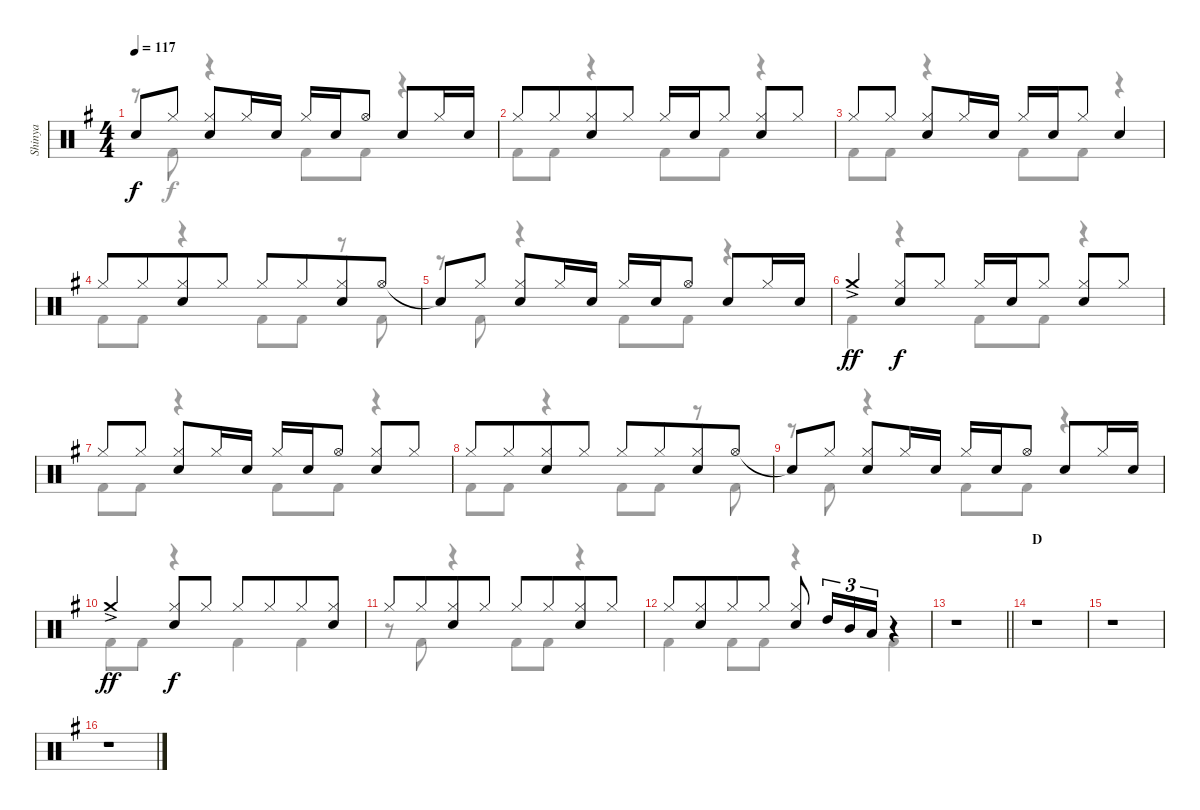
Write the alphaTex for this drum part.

\track ("Shinya" "Shinya") {instrument percussion}
\staff {score}
\articulation defaults
\voice
\ts (4 4)
\tempo 117
\clef neutral
\ks eminor "Snare (hit)"{t}.8{dy f} "Hi-Hat (closed)".8
("Hi-Hat (closed)" "Snare (hit) 2").8 "Hi-Hat (closed)".16 "Snare (hit) 2".16 "Hi-Hat (closed)".16 "Snare (hit) 2".16 "Hi-Hat (open)".8 "Snare (hit) 2".8 "Hi-Hat (closed)".16 "Snare (hit) 2".16 |
"Hi-Hat (closed)".8 "Hi-Hat (closed)".8{beam merge} ("Hi-Hat (closed)" "Snare (hit) 2").8 "Hi-Hat (closed)".8 "Hi-Hat (closed)".16 "Snare (hit) 2".16 "Hi-Hat (closed)".8 ("Hi-Hat (closed)" "Snare (hit) 2").8 "Hi-Hat (closed)".8 |
"Hi-Hat (closed)".8 "Hi-Hat (closed)".8 ("Hi-Hat (closed)" "Snare (hit) 2").8 "Hi-Hat (closed)".16 "Snare (hit) 2".16 "Hi-Hat (closed)".16 "Snare (hit) 2".16 "Hi-Hat (closed)".8 "Snare (hit) 2".4 |
"Hi-Hat (closed)".8 "Hi-Hat (closed)".8{beam merge} ("Hi-Hat (closed)" "Snare (hit) 2").8 "Hi-Hat (closed)".8 "Hi-Hat (closed)".8 "Hi-Hat (closed)".8{beam merge} ("Hi-Hat (closed)" "Snare (hit) 2").8 "Hi-Hat (open)".8 |
"Snare (hit)"{t}.8 "Hi-Hat (closed)".8 ("Hi-Hat (closed)" "Snare (hit) 2").8 "Hi-Hat (closed)".16 "Snare (hit) 2".16 "Hi-Hat (closed)".16 "Snare (hit) 2".16 "Hi-Hat (open)".8 "Snare (hit) 2".8 "Hi-Hat (closed)".16 "Snare (hit) 2".16 |
"Crash medium (hit)"{ac}.4{dy ff} ("Hi-Hat (closed)" "Snare (hit) 2").8{dy f} "Hi-Hat (closed)".8 "Hi-Hat (closed)".16 "Snare (hit) 2".16 "Hi-Hat (closed)".8 ("Hi-Hat (closed)" "Snare (hit) 2").8 "Hi-Hat (closed)".8 |
"Hi-Hat (closed)".8 "Hi-Hat (closed)".8 ("Hi-Hat (closed)" "Snare (hit) 2").8 "Hi-Hat (closed)".16 "Snare (hit) 2".16 "Hi-Hat (closed)".16 "Snare (hit) 2".16 "Hi-Hat (open)".8 ("Hi-Hat (closed)" "Snare (hit) 2").8 "Hi-Hat (closed)".8 |
"Hi-Hat (closed)".8 "Hi-Hat (closed)".8{beam merge} ("Hi-Hat (closed)" "Snare (hit) 2").8 "Hi-Hat (closed)".8 "Hi-Hat (closed)".8 "Hi-Hat (closed)".8{beam merge} ("Hi-Hat (closed)" "Snare (hit) 2").8 "Hi-Hat (open)".8 |
"Snare (hit)"{t}.8 "Hi-Hat (closed)".8 ("Hi-Hat (closed)" "Snare (hit) 2").8 "Hi-Hat (closed)".16 "Snare (hit) 2".16 "Hi-Hat (closed)".16 "Snare (hit) 2".16 "Hi-Hat (open)".8 "Snare (hit) 2".8 "Hi-Hat (closed)".16 "Snare (hit) 2".16 |
"Crash medium (hit)"{ac}.4{dy ff} ("Hi-Hat (closed)" "Snare (hit) 2").8{dy f} "Hi-Hat (closed)".8 "Hi-Hat (closed)".8 "Hi-Hat (closed)".8{beam merge} "Hi-Hat (closed)".8 ("Hi-Hat (closed)" "Snare (hit) 2").8 |
"Hi-Hat (closed)".8{beam merge} "Hi-Hat (closed)".8{beam merge} ("Hi-Hat (closed)" "Snare (hit) 2").8{beam merge} "Hi-Hat (closed)".8 "Hi-Hat (closed)".8 "Hi-Hat (closed)".8{beam merge} ("Hi-Hat (closed)" "Snare (hit) 2").8 "Hi-Hat (closed)".8 |
"Hi-Hat (closed)".8 ("Hi-Hat (closed)" "Snare (hit) 2").8{beam merge} "Hi-Hat (closed)".8 "Hi-Hat (closed)".8 ("Hi-Hat (closed)" "Snare (hit) 2").8 "High Tom (hit)".16{tu (3 2)} "Mid Tom (hit)".16{tu (3 2)} "Low Tom (hit)".16{tu (3 2)} r.4 |
\barLineRight lightlight
r.1 |
\section ("" "D")
r.1 |
r.1 |
r.1
\voice
\clef neutral
\ottava regular
\simile none
\ks eminor
r.8{dy f} "Kick (hit) 2".8 r.4 "Kick (hit) 2".8 "Kick (hit) 2".8 r.4 |
"Kick (hit) 2".8 "Kick (hit) 2".8 r.4 "Kick (hit) 2".8 "Kick (hit) 2".8 r.4 |
"Kick (hit) 2".8 "Kick (hit) 2".8 r.4 "Kick (hit) 2".8 "Kick (hit) 2".8 r.4 |
"Kick (hit) 2".8 "Kick (hit) 2".8 r.4 "Kick (hit) 2".8 "Kick (hit) 2".8 r.8 "Kick (hit) 2".8 |
r.8 "Kick (hit) 2".8 r.4 "Kick (hit) 2".8 "Kick (hit) 2".8 r.4 |
"Kick (hit) 2".4 r.4 "Kick (hit) 2".8 "Kick (hit) 2".8 r.4 |
"Kick (hit) 2".8 "Kick (hit) 2".8 r.4 "Kick (hit) 2".8 "Kick (hit) 2".8 r.4 |
"Kick (hit) 2".8 "Kick (hit) 2".8 r.4 "Kick (hit) 2".8 "Kick (hit) 2".8 r.8 "Kick (hit) 2".8 |
r.8 "Kick (hit) 2".8 r.4 "Kick (hit) 2".8 "Kick (hit) 2".8 r.4 |
"Kick (hit) 2".8 "Kick (hit) 2".8 r.4 "Kick (hit) 2".4 "Kick (hit) 2".4 |
r.8 "Kick (hit) 2".8 r.4 "Kick (hit) 2".8 "Kick (hit) 2".8 r.4 |
"Kick (hit) 2".4 "Kick (hit) 2".8 "Kick (hit) 2".8 r.4 "Kick (hit) 2".4 |
\barLineRight lightlight
r.1 |
r.1 |
r.1 |
r.1
